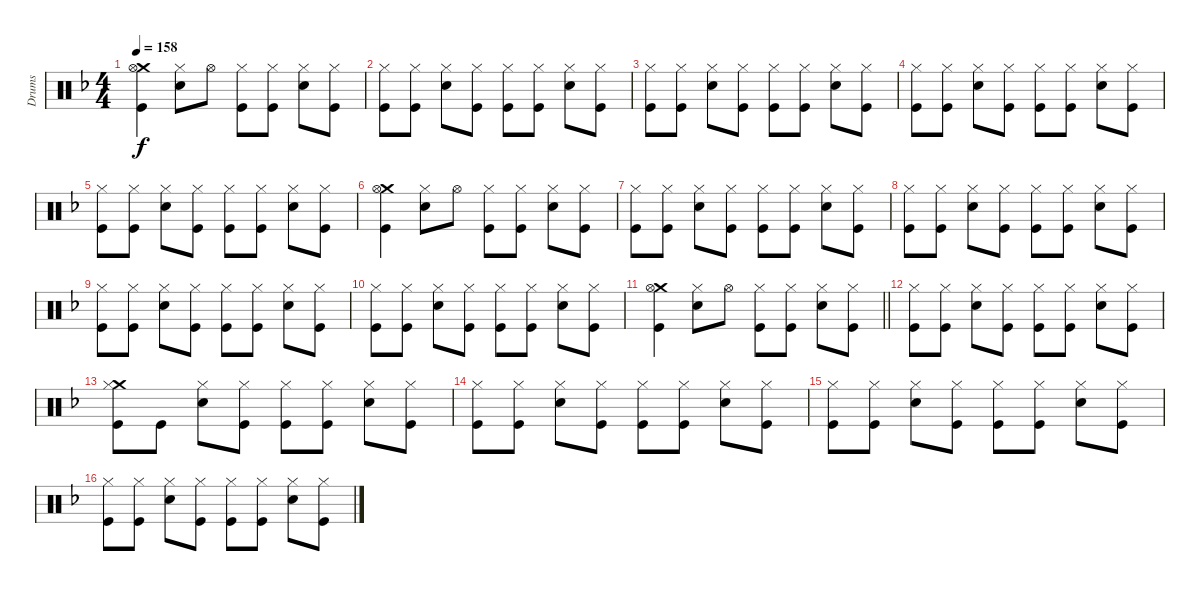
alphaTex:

\track ("Drums" "Drums") {instrument percussion}
\staff {score}
\articulation defaults
\ts (4 4)
\section ("" "")
\tempo 158
\clef neutral
\ks f
("Crash medium (hit)" "Hi-Hat (open)" "Kick (hit)").4{dy f} ("Hi-Hat (closed)" "Snare (hit) 2").8 "Hi-Hat (open)".8 ("Hi-Hat (closed)" "Kick (hit)").8 ("Hi-Hat (closed)" "Kick (hit)").8 ("Hi-Hat (closed)" "Snare (hit) 2").8 ("Hi-Hat (closed)" "Kick (hit)").8 |
("Hi-Hat (closed)" "Kick (hit)").8 ("Hi-Hat (closed)" "Kick (hit)").8 ("Hi-Hat (closed)" "Snare (hit) 2").8 ("Hi-Hat (closed)" "Kick (hit)").8 ("Hi-Hat (closed)" "Kick (hit)").8 ("Hi-Hat (closed)" "Kick (hit)").8 ("Hi-Hat (closed)" "Snare (hit) 2").8 ("Hi-Hat (closed)" "Kick (hit)").8 |
("Hi-Hat (closed)" "Kick (hit)").8 ("Hi-Hat (closed)" "Kick (hit)").8 ("Hi-Hat (closed)" "Snare (hit) 2").8 ("Hi-Hat (closed)" "Kick (hit)").8 ("Hi-Hat (closed)" "Kick (hit)").8 ("Hi-Hat (closed)" "Kick (hit)").8 ("Hi-Hat (closed)" "Snare (hit) 2").8 ("Hi-Hat (closed)" "Kick (hit)").8 |
("Hi-Hat (closed)" "Kick (hit)").8 ("Hi-Hat (closed)" "Kick (hit)").8 ("Hi-Hat (closed)" "Snare (hit) 2").8 ("Hi-Hat (closed)" "Kick (hit)").8 ("Hi-Hat (closed)" "Kick (hit)").8 ("Hi-Hat (closed)" "Kick (hit)").8 ("Hi-Hat (closed)" "Snare (hit) 2").8 ("Hi-Hat (closed)" "Kick (hit)").8 |
("Hi-Hat (closed)" "Kick (hit)").8 ("Hi-Hat (closed)" "Kick (hit)").8 ("Hi-Hat (closed)" "Snare (hit) 2").8 ("Hi-Hat (closed)" "Kick (hit)").8 ("Hi-Hat (closed)" "Kick (hit)").8 ("Hi-Hat (closed)" "Kick (hit)").8 ("Hi-Hat (closed)" "Snare (hit) 2").8 ("Hi-Hat (closed)" "Kick (hit)").8 |
("Crash medium (hit)" "Hi-Hat (open)" "Kick (hit)").4 ("Hi-Hat (closed)" "Snare (hit) 2").8 "Hi-Hat (open)".8 ("Hi-Hat (closed)" "Kick (hit)").8 ("Hi-Hat (closed)" "Kick (hit)").8 ("Hi-Hat (closed)" "Snare (hit) 2").8 ("Hi-Hat (closed)" "Kick (hit)").8 |
("Hi-Hat (closed)" "Kick (hit)").8 ("Hi-Hat (closed)" "Kick (hit)").8 ("Hi-Hat (closed)" "Snare (hit) 2").8 ("Hi-Hat (closed)" "Kick (hit)").8 ("Hi-Hat (closed)" "Kick (hit)").8 ("Hi-Hat (closed)" "Kick (hit)").8 ("Hi-Hat (closed)" "Snare (hit) 2").8 ("Hi-Hat (closed)" "Kick (hit)").8 |
("Hi-Hat (closed)" "Kick (hit)").8 ("Hi-Hat (closed)" "Kick (hit)").8 ("Hi-Hat (closed)" "Snare (hit) 2").8 ("Hi-Hat (closed)" "Kick (hit)").8 ("Hi-Hat (closed)" "Kick (hit)").8 ("Hi-Hat (closed)" "Kick (hit)").8 ("Hi-Hat (closed)" "Snare (hit) 2").8 ("Hi-Hat (closed)" "Kick (hit)").8 |
("Hi-Hat (closed)" "Kick (hit)").8 ("Hi-Hat (closed)" "Kick (hit)").8 ("Hi-Hat (closed)" "Snare (hit) 2").8 ("Hi-Hat (closed)" "Kick (hit)").8 ("Hi-Hat (closed)" "Kick (hit)").8 ("Hi-Hat (closed)" "Kick (hit)").8 ("Hi-Hat (closed)" "Snare (hit) 2").8 ("Hi-Hat (closed)" "Kick (hit)").8 |
("Hi-Hat (closed)" "Kick (hit)").8 ("Hi-Hat (closed)" "Kick (hit)").8 ("Hi-Hat (closed)" "Snare (hit) 2").8 ("Hi-Hat (closed)" "Kick (hit)").8 ("Hi-Hat (closed)" "Kick (hit)").8 ("Hi-Hat (closed)" "Kick (hit)").8 ("Hi-Hat (closed)" "Snare (hit) 2").8 ("Hi-Hat (closed)" "Kick (hit)").8 |
\barLineRight lightlight
("Crash medium (hit)" "Hi-Hat (open)" "Kick (hit)").4 ("Hi-Hat (closed)" "Snare (hit) 2").8 "Hi-Hat (open)".8 ("Hi-Hat (closed)" "Kick (hit)").8 ("Hi-Hat (closed)" "Kick (hit)").8 ("Hi-Hat (closed)" "Snare (hit) 2").8 ("Hi-Hat (closed)" "Kick (hit)").8 |
\section ("" "")
("Hi-Hat (closed)" "Kick (hit)").8 ("Hi-Hat (closed)" "Kick (hit)").8 ("Hi-Hat (closed)" "Snare (hit) 2").8 ("Hi-Hat (closed)" "Kick (hit)").8 ("Hi-Hat (closed)" "Kick (hit)").8 ("Hi-Hat (closed)" "Kick (hit)").8 ("Hi-Hat (closed)" "Snare (hit) 2").8 ("Hi-Hat (closed)" "Kick (hit)").8 |
("Crash medium (hit)" "Hi-Hat (closed)" "Kick (hit)").8 "Kick (hit)".8 ("Hi-Hat (closed)" "Snare (hit) 2").8 ("Hi-Hat (closed)" "Kick (hit)").8 ("Hi-Hat (closed)" "Kick (hit)").8 ("Hi-Hat (closed)" "Kick (hit)").8 ("Hi-Hat (closed)" "Snare (hit) 2").8 ("Hi-Hat (closed)" "Kick (hit)").8 |
("Hi-Hat (closed)" "Kick (hit)").8 ("Hi-Hat (closed)" "Kick (hit)").8 ("Hi-Hat (closed)" "Snare (hit) 2").8 ("Hi-Hat (closed)" "Kick (hit)").8 ("Hi-Hat (closed)" "Kick (hit)").8 ("Hi-Hat (closed)" "Kick (hit)").8 ("Hi-Hat (closed)" "Snare (hit) 2").8 ("Hi-Hat (closed)" "Kick (hit)").8 |
("Hi-Hat (closed)" "Kick (hit)").8 ("Hi-Hat (closed)" "Kick (hit)").8 ("Hi-Hat (closed)" "Snare (hit) 2").8 ("Hi-Hat (closed)" "Kick (hit)").8 ("Hi-Hat (closed)" "Kick (hit)").8 ("Hi-Hat (closed)" "Kick (hit)").8 ("Hi-Hat (closed)" "Snare (hit) 2").8 ("Hi-Hat (closed)" "Kick (hit)").8 |
("Hi-Hat (closed)" "Kick (hit)").8 ("Hi-Hat (closed)" "Kick (hit)").8 ("Hi-Hat (closed)" "Snare (hit) 2").8 ("Hi-Hat (closed)" "Kick (hit)").8 ("Hi-Hat (closed)" "Kick (hit)").8 ("Hi-Hat (closed)" "Kick (hit)").8 ("Hi-Hat (closed)" "Snare (hit) 2").8 ("Hi-Hat (closed)" "Kick (hit)").8
